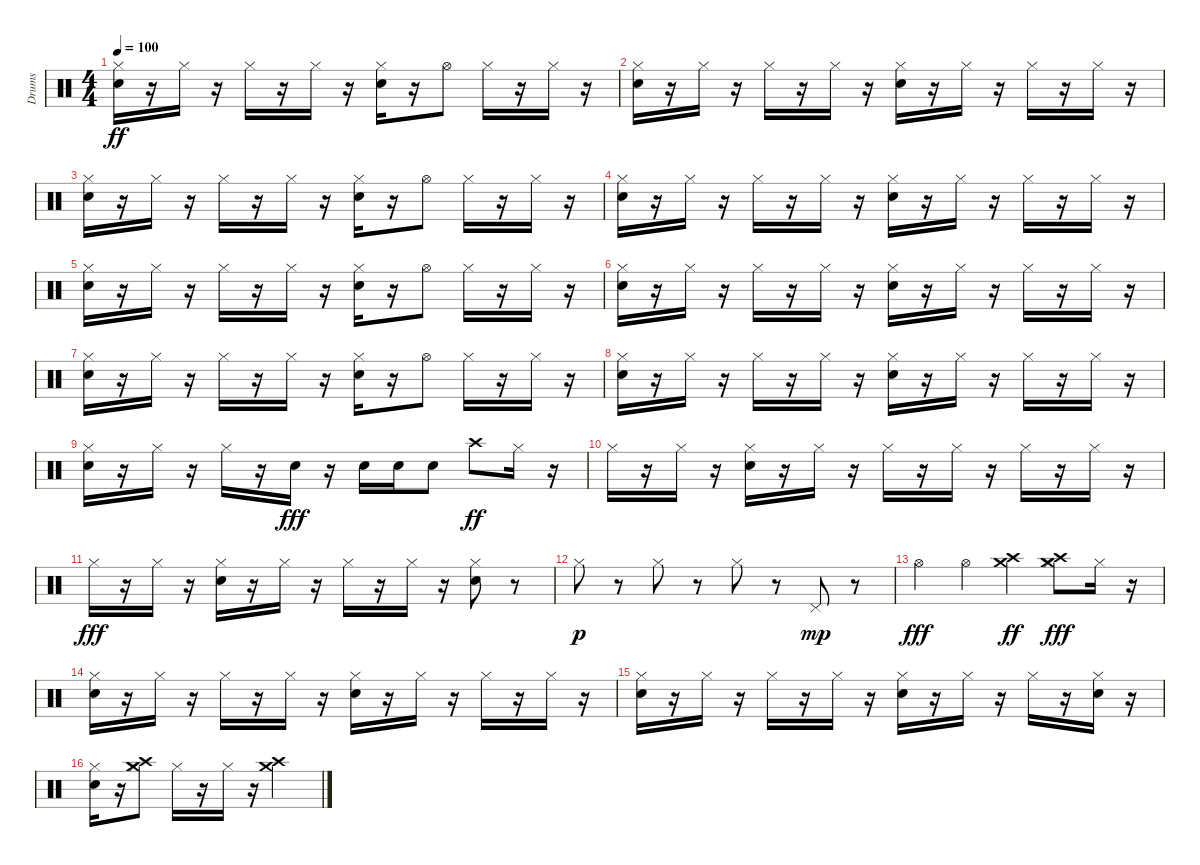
\track ("Drums" "Drums") {instrument percussion}
\staff {score}
\articulation defaults
\ts (4 4)
\tempo 100
\clef neutral
\ks c
("Snare (hit) 2" "Hi-Hat (closed)").16{dy ff} r.16 "Hi-Hat (closed)".16 r.16 "Hi-Hat (closed)".16 r.16 "Hi-Hat (closed)".16 r.16 ("Hi-Hat (closed)" "Snare (hit) 2").16 r.16 "Hi-Hat (open)".8 "Hi-Hat (closed)".16 r.16 "Hi-Hat (closed)".16 r.16 |
("Hi-Hat (closed)" "Snare (hit) 2").16 r.16 "Hi-Hat (closed)".16 r.16 "Hi-Hat (closed)".16 r.16 "Hi-Hat (closed)".16 r.16 ("Hi-Hat (closed)" "Snare (hit) 2").16 r.16 "Hi-Hat (closed)".16 r.16 "Hi-Hat (closed)".16 r.16 "Hi-Hat (closed)".16 r.16 |
("Snare (hit) 2" "Hi-Hat (closed)").16 r.16 "Hi-Hat (closed)".16 r.16 "Hi-Hat (closed)".16 r.16 "Hi-Hat (closed)".16 r.16 ("Hi-Hat (closed)" "Snare (hit) 2").16 r.16 "Hi-Hat (open)".8 "Hi-Hat (closed)".16 r.16 "Hi-Hat (closed)".16 r.16 |
("Hi-Hat (closed)" "Snare (hit) 2").16 r.16 "Hi-Hat (closed)".16 r.16 "Hi-Hat (closed)".16 r.16 "Hi-Hat (closed)".16 r.16 ("Hi-Hat (closed)" "Snare (hit) 2").16 r.16 "Hi-Hat (closed)".16 r.16 "Hi-Hat (closed)".16 r.16 "Hi-Hat (closed)".16 r.16 |
("Snare (hit) 2" "Hi-Hat (closed)").16 r.16 "Hi-Hat (closed)".16 r.16 "Hi-Hat (closed)".16 r.16 "Hi-Hat (closed)".16 r.16 ("Hi-Hat (closed)" "Snare (hit) 2").16 r.16 "Hi-Hat (open)".8 "Hi-Hat (closed)".16 r.16 "Hi-Hat (closed)".16 r.16 |
("Hi-Hat (closed)" "Snare (hit) 2").16 r.16 "Hi-Hat (closed)".16 r.16 "Hi-Hat (closed)".16 r.16 "Hi-Hat (closed)".16 r.16 ("Hi-Hat (closed)" "Snare (hit) 2").16 r.16 "Hi-Hat (closed)".16 r.16 "Hi-Hat (closed)".16 r.16 "Hi-Hat (closed)".16 r.16 |
("Snare (hit) 2" "Hi-Hat (closed)").16 r.16 "Hi-Hat (closed)".16 r.16 "Hi-Hat (closed)".16 r.16 "Hi-Hat (closed)".16 r.16 ("Hi-Hat (closed)" "Snare (hit) 2").16 r.16 "Hi-Hat (open)".8 "Hi-Hat (closed)".16 r.16 "Hi-Hat (closed)".16 r.16 |
("Hi-Hat (closed)" "Snare (hit) 2").16 r.16 "Hi-Hat (closed)".16 r.16 "Hi-Hat (closed)".16 r.16 "Hi-Hat (closed)".16 r.16 ("Hi-Hat (closed)" "Snare (hit) 2").16 r.16 "Hi-Hat (closed)".16 r.16 "Hi-Hat (closed)".16 r.16 "Hi-Hat (closed)".16 r.16 |
("Snare (hit) 2" "Hi-Hat (closed)").16 r.16 "Hi-Hat (closed)".16 r.16 "Hi-Hat (closed)".16 r.16 "Snare (hit) 2".16{dy fff} r.16 "Snare (hit) 2".16 "Snare (hit) 2".16 "Snare (hit) 2".8 "Crash high (hit)".8{dy ff} "Hi-Hat (closed)".16 r.16 |
"Hi-Hat (closed)".16 r.16 "Hi-Hat (closed)".16 r.16 ("Snare (hit) 2" "Hi-Hat (closed)").16 r.16 "Hi-Hat (closed)".16 r.16 "Hi-Hat (closed)".16 r.16 "Hi-Hat (closed)".16 r.16 "Hi-Hat (closed)".16 r.16 "Hi-Hat (closed)".16 r.16 |
"Hi-Hat (closed)".16{dy fff} r.16 "Hi-Hat (closed)".16 r.16 ("Snare (hit) 2" "Hi-Hat (closed)").16 r.16 "Hi-Hat (closed)".16 r.16 "Hi-Hat (closed)".16 r.16 "Hi-Hat (closed)".16 r.16 ("Hi-Hat (closed)" "Snare (hit) 2").8 r.8 |
"Hi-Hat (closed)".8{dy p} r.8 "Hi-Hat (closed)".8 r.8 "Hi-Hat (closed)".8 r.8 "Pedal Hi-Hat (hit)".8{dy mp} r.8 |
"Hi-Hat (open)".4{dy fff} "Hi-Hat (open)".4 ("Crash high (hit)" "Crash medium (hit)").4{dy ff} ("Crash high (hit)" "Crash medium (hit)" "Hi-Hat (closed)").8{dy fff} "Hi-Hat (closed)".16 r.16 |
("Snare (hit) 2" "Hi-Hat (closed)").16 r.16 "Hi-Hat (closed)".16 r.16 "Hi-Hat (closed)".16 r.16 "Hi-Hat (closed)".16 r.16 ("Snare (hit) 2" "Hi-Hat (closed)").16 r.16 "Hi-Hat (closed)".16 r.16 "Hi-Hat (closed)".16 r.16 "Hi-Hat (closed)".16 r.16 |
("Snare (hit) 2" "Hi-Hat (closed)").16 r.16 "Hi-Hat (closed)".16 r.16 "Hi-Hat (closed)".16 r.16 "Hi-Hat (closed)".16 r.16 ("Snare (hit) 2" "Hi-Hat (closed)").16 r.16 "Hi-Hat (closed)".16 r.16 "Hi-Hat (closed)".16 r.16 ("Snare (hit) 2" "Hi-Hat (closed)").16 r.16 |
("Snare (hit) 2" "Hi-Hat (closed)").16 r.16 ("Hi-Hat (closed)" "Crash high (hit)" "Crash medium (hit)").8 "Hi-Hat (closed)".16 r.16 "Hi-Hat (closed)".16 r.16 ("Crash high (hit)" "Crash medium (hit)").2
